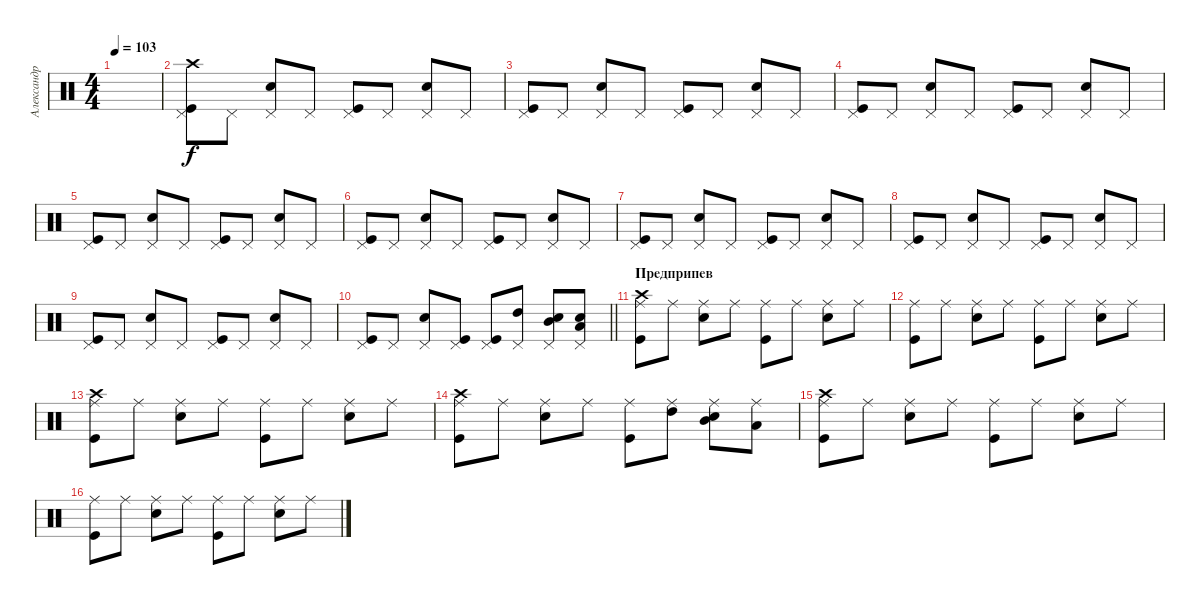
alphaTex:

\track ("Александр Ерохин (ударные)" "Александр ") {instrument percussion}
\staff {score}
\articulation defaults
\ts (4 4)
\tempo 103
\clef neutral
\ks c
|
("Kick (hit)" "Pedal Hi-Hat (hit)" "Crash high (hit)").8 "Pedal Hi-Hat (hit)".8 ("Pedal Hi-Hat (hit)" "Snare (hit) 2").8 "Pedal Hi-Hat (hit)".8 ("Kick (hit)" "Pedal Hi-Hat (hit)").8 "Pedal Hi-Hat (hit)".8 ("Pedal Hi-Hat (hit)" "Snare (hit) 2").8 "Pedal Hi-Hat (hit)".8 |
("Kick (hit)" "Pedal Hi-Hat (hit)").8 "Pedal Hi-Hat (hit)".8 ("Pedal Hi-Hat (hit)" "Snare (hit) 2").8 "Pedal Hi-Hat (hit)".8 ("Kick (hit)" "Pedal Hi-Hat (hit)").8 "Pedal Hi-Hat (hit)".8 ("Pedal Hi-Hat (hit)" "Snare (hit) 2").8 "Pedal Hi-Hat (hit)".8 |
("Kick (hit)" "Pedal Hi-Hat (hit)").8 "Pedal Hi-Hat (hit)".8 ("Pedal Hi-Hat (hit)" "Snare (hit) 2").8 "Pedal Hi-Hat (hit)".8 ("Kick (hit)" "Pedal Hi-Hat (hit)").8 "Pedal Hi-Hat (hit)".8 ("Pedal Hi-Hat (hit)" "Snare (hit) 2").8 "Pedal Hi-Hat (hit)".8 |
("Kick (hit)" "Pedal Hi-Hat (hit)").8 "Pedal Hi-Hat (hit)".8 ("Pedal Hi-Hat (hit)" "Snare (hit) 2").8 "Pedal Hi-Hat (hit)".8 ("Kick (hit)" "Pedal Hi-Hat (hit)").8 "Pedal Hi-Hat (hit)".8 ("Pedal Hi-Hat (hit)" "Snare (hit) 2").8 "Pedal Hi-Hat (hit)".8 |
("Kick (hit)" "Pedal Hi-Hat (hit)").8 "Pedal Hi-Hat (hit)".8 ("Pedal Hi-Hat (hit)" "Snare (hit) 2").8 "Pedal Hi-Hat (hit)".8 ("Kick (hit)" "Pedal Hi-Hat (hit)").8 "Pedal Hi-Hat (hit)".8 ("Pedal Hi-Hat (hit)" "Snare (hit) 2").8 "Pedal Hi-Hat (hit)".8 |
("Kick (hit)" "Pedal Hi-Hat (hit)").8 "Pedal Hi-Hat (hit)".8 ("Pedal Hi-Hat (hit)" "Snare (hit) 2").8 "Pedal Hi-Hat (hit)".8 ("Kick (hit)" "Pedal Hi-Hat (hit)").8 "Pedal Hi-Hat (hit)".8 ("Pedal Hi-Hat (hit)" "Snare (hit) 2").8 "Pedal Hi-Hat (hit)".8 |
("Kick (hit)" "Pedal Hi-Hat (hit)").8 "Pedal Hi-Hat (hit)".8 ("Pedal Hi-Hat (hit)" "Snare (hit) 2").8 "Pedal Hi-Hat (hit)".8 ("Kick (hit)" "Pedal Hi-Hat (hit)").8 "Pedal Hi-Hat (hit)".8 ("Pedal Hi-Hat (hit)" "Snare (hit) 2").8 "Pedal Hi-Hat (hit)".8 |
("Kick (hit)" "Pedal Hi-Hat (hit)").8 "Pedal Hi-Hat (hit)".8 ("Pedal Hi-Hat (hit)" "Snare (hit) 2").8 "Pedal Hi-Hat (hit)".8 ("Kick (hit)" "Pedal Hi-Hat (hit)").8 "Pedal Hi-Hat (hit)".8 ("Pedal Hi-Hat (hit)" "Snare (hit) 2").8 "Pedal Hi-Hat (hit)".8 |
\barLineRight lightlight
("Kick (hit)" "Pedal Hi-Hat (hit)").8 "Pedal Hi-Hat (hit)".8 ("Pedal Hi-Hat (hit)" "Snare (hit) 2").8 ("Kick (hit)" "Pedal Hi-Hat (hit)").8 ("Kick (hit)" "Pedal Hi-Hat (hit)").8 ("Pedal Hi-Hat (hit)" "High Tom (hit)").8 ("Pedal Hi-Hat (hit)" "Snare (hit) 2" "Mid Tom (hit)").8 ("Pedal Hi-Hat (hit)" "Snare (hit) 2" "Low Tom (hit)").8 |
\section ("" "Предприпев")
("Kick (hit)" "Ride (middle)" "Crash high (hit)").8 "Ride (middle)".8 ("Ride (middle)" "Snare (hit) 2").8 "Ride (middle)".8 ("Kick (hit)" "Ride (middle)").8 "Ride (middle)".8 ("Ride (middle)" "Snare (hit) 2").8 "Ride (middle)".8 |
("Kick (hit)" "Ride (middle)").8 "Ride (middle)".8 ("Ride (middle)" "Snare (hit) 2").8 "Ride (middle)".8 ("Kick (hit)" "Ride (middle)").8 "Ride (middle)".8 ("Ride (middle)" "Snare (hit) 2").8 "Ride (middle)".8 |
("Kick (hit)" "Ride (middle)" "Crash high (hit)").8 "Ride (middle)".8 ("Ride (middle)" "Snare (hit) 2").8 "Ride (middle)".8 ("Kick (hit)" "Ride (middle)").8 "Ride (middle)".8 ("Ride (middle)" "Snare (hit) 2").8 "Ride (middle)".8 |
("Kick (hit)" "Ride (middle)" "Crash high (hit)").8 "Ride (middle)".8 ("Ride (middle)" "Snare (hit) 2").8 "Ride (middle)".8 ("Kick (hit)" "Ride (middle)").8 ("Ride (middle)" "High Tom (hit)").8 ("Ride (middle)" "Snare (hit) 2" "Mid Tom (hit)").8 ("Ride (middle)" "Low Tom (hit)").8 |
("Kick (hit)" "Ride (middle)" "Crash high (hit)").8 "Ride (middle)".8 ("Ride (middle)" "Snare (hit) 2").8 "Ride (middle)".8 ("Kick (hit)" "Ride (middle)").8 "Ride (middle)".8 ("Ride (middle)" "Snare (hit) 2").8 "Ride (middle)".8 |
("Kick (hit)" "Ride (middle)").8 "Ride (middle)".8 ("Ride (middle)" "Snare (hit) 2").8 "Ride (middle)".8 ("Kick (hit)" "Ride (middle)").8 "Ride (middle)".8 ("Ride (middle)" "Snare (hit) 2").8 "Ride (middle)".8
